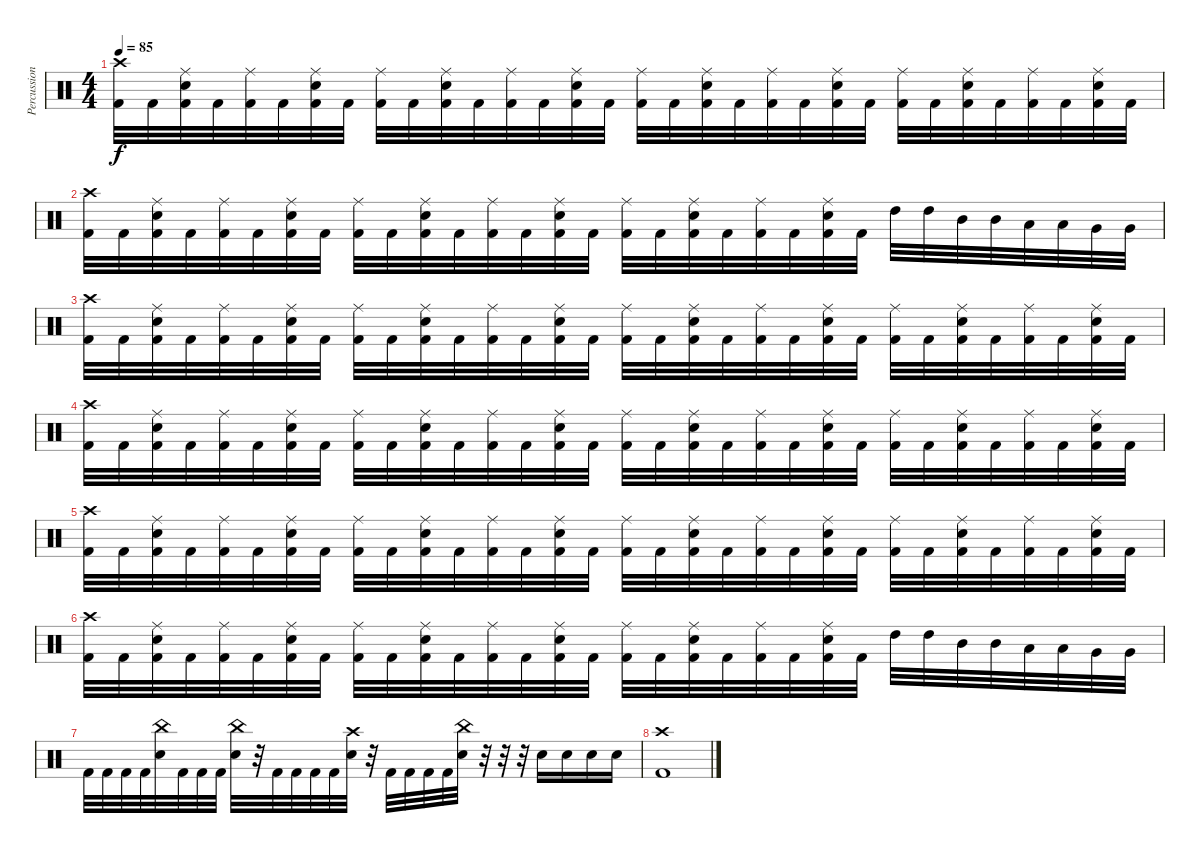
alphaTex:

\track ("Percussions" "Percussion") {instrument percussion}
\staff {score}
\articulation defaults
\ts (4 4)
\tempo 85
\clef neutral
\ks c
("Crash high (hit)" "Kick (hit) 2").32{dy f} "Kick (hit) 2".32 ("Ride (middle)" "Snare (hit) 2" "Kick (hit) 2").32 "Kick (hit) 2".32 ("Ride (middle)" "Kick (hit) 2").32 "Kick (hit) 2".32 ("Ride (middle)" "Snare (hit) 2" "Kick (hit) 2").32 "Kick (hit) 2".32 ("Ride (middle)" "Kick (hit) 2").32 "Kick (hit) 2".32 ("Ride (middle)" "Snare (hit) 2" "Kick (hit) 2").32 "Kick (hit) 2".32 ("Ride (middle)" "Kick (hit) 2").32 "Kick (hit) 2".32 ("Ride (middle)" "Snare (hit) 2" "Kick (hit) 2").32 "Kick (hit) 2".32 ("Ride (middle)" "Kick (hit) 2").32 "Kick (hit) 2".32 ("Ride (middle)" "Snare (hit) 2" "Kick (hit) 2").32 "Kick (hit) 2".32 ("Ride (middle)" "Kick (hit) 2").32 "Kick (hit) 2".32 ("Ride (middle)" "Snare (hit) 2" "Kick (hit) 2").32 "Kick (hit) 2".32 ("Ride (middle)" "Kick (hit) 2").32 "Kick (hit) 2".32 ("Ride (middle)" "Snare (hit) 2" "Kick (hit) 2").32 "Kick (hit) 2".32 ("Ride (middle)" "Kick (hit) 2").32 "Kick (hit) 2".32 ("Ride (middle)" "Snare (hit) 2" "Kick (hit) 2").32 "Kick (hit) 2".32 |
("Crash high (hit)" "Kick (hit) 2").32 "Kick (hit) 2".32 ("Ride (middle)" "Snare (hit) 2" "Kick (hit) 2").32 "Kick (hit) 2".32 ("Ride (middle)" "Kick (hit) 2").32 "Kick (hit) 2".32 ("Ride (middle)" "Snare (hit) 2" "Kick (hit) 2").32 "Kick (hit) 2".32 ("Ride (middle)" "Kick (hit) 2").32 "Kick (hit) 2".32 ("Ride (middle)" "Snare (hit) 2" "Kick (hit) 2").32 "Kick (hit) 2".32 ("Ride (middle)" "Kick (hit) 2").32 "Kick (hit) 2".32 ("Ride (middle)" "Snare (hit) 2" "Kick (hit) 2").32 "Kick (hit) 2".32 ("Ride (middle)" "Kick (hit) 2").32 "Kick (hit) 2".32 ("Ride (middle)" "Snare (hit) 2" "Kick (hit) 2").32 "Kick (hit) 2".32 ("Ride (middle)" "Kick (hit) 2").32 "Kick (hit) 2".32 ("Ride (middle)" "Snare (hit) 2" "Kick (hit) 2").32 "Kick (hit) 2".32 "High Tom (hit)".32 "High Tom (hit)".32 "Mid Tom (hit)".32 "Mid Tom (hit)".32 "Low Tom (hit)".32 "Low Tom (hit)".32 "Very Low Tom (hit)".32 "Very Low Tom (hit)".32 |
("Crash high (hit)" "Kick (hit) 2").32 "Kick (hit) 2".32 ("Ride (middle)" "Snare (hit) 2" "Kick (hit) 2").32 "Kick (hit) 2".32 ("Ride (middle)" "Kick (hit) 2").32 "Kick (hit) 2".32 ("Ride (middle)" "Snare (hit) 2" "Kick (hit) 2").32 "Kick (hit) 2".32 ("Ride (middle)" "Kick (hit) 2").32 "Kick (hit) 2".32 ("Ride (middle)" "Snare (hit) 2" "Kick (hit) 2").32 "Kick (hit) 2".32 ("Ride (middle)" "Kick (hit) 2").32 "Kick (hit) 2".32 ("Ride (middle)" "Snare (hit) 2" "Kick (hit) 2").32 "Kick (hit) 2".32 ("Ride (middle)" "Kick (hit) 2").32 "Kick (hit) 2".32 ("Ride (middle)" "Snare (hit) 2" "Kick (hit) 2").32 "Kick (hit) 2".32 ("Ride (middle)" "Kick (hit) 2").32 "Kick (hit) 2".32 ("Ride (middle)" "Snare (hit) 2" "Kick (hit) 2").32 "Kick (hit) 2".32 ("Ride (middle)" "Kick (hit) 2").32 "Kick (hit) 2".32 ("Ride (middle)" "Snare (hit) 2" "Kick (hit) 2").32 "Kick (hit) 2".32 ("Ride (middle)" "Kick (hit) 2").32 "Kick (hit) 2".32 ("Ride (middle)" "Snare (hit) 2" "Kick (hit) 2").32 "Kick (hit) 2".32 |
("Crash high (hit)" "Kick (hit) 2").32 "Kick (hit) 2".32 ("Ride (middle)" "Snare (hit) 2" "Kick (hit) 2").32 "Kick (hit) 2".32 ("Ride (middle)" "Kick (hit) 2").32 "Kick (hit) 2".32 ("Ride (middle)" "Snare (hit) 2" "Kick (hit) 2").32 "Kick (hit) 2".32 ("Ride (middle)" "Kick (hit) 2").32 "Kick (hit) 2".32 ("Ride (middle)" "Snare (hit) 2" "Kick (hit) 2").32 "Kick (hit) 2".32 ("Ride (middle)" "Kick (hit) 2").32 "Kick (hit) 2".32 ("Ride (middle)" "Snare (hit) 2" "Kick (hit) 2").32 "Kick (hit) 2".32 ("Ride (middle)" "Kick (hit) 2").32 "Kick (hit) 2".32 ("Ride (middle)" "Snare (hit) 2" "Kick (hit) 2").32 "Kick (hit) 2".32 ("Ride (middle)" "Kick (hit) 2").32 "Kick (hit) 2".32 ("Ride (middle)" "Snare (hit) 2" "Kick (hit) 2").32 "Kick (hit) 2".32 ("Ride (middle)" "Kick (hit) 2").32 "Kick (hit) 2".32 ("Ride (middle)" "Snare (hit) 2" "Kick (hit) 2").32 "Kick (hit) 2".32 ("Ride (middle)" "Kick (hit) 2").32 "Kick (hit) 2".32 ("Ride (middle)" "Snare (hit) 2" "Kick (hit) 2").32 "Kick (hit) 2".32 |
("Crash high (hit)" "Kick (hit) 2").32 "Kick (hit) 2".32 ("Ride (middle)" "Snare (hit) 2" "Kick (hit) 2").32 "Kick (hit) 2".32 ("Ride (middle)" "Kick (hit) 2").32 "Kick (hit) 2".32 ("Ride (middle)" "Snare (hit) 2" "Kick (hit) 2").32 "Kick (hit) 2".32 ("Ride (middle)" "Kick (hit) 2").32 "Kick (hit) 2".32 ("Ride (middle)" "Snare (hit) 2" "Kick (hit) 2").32 "Kick (hit) 2".32 ("Ride (middle)" "Kick (hit) 2").32 "Kick (hit) 2".32 ("Ride (middle)" "Snare (hit) 2" "Kick (hit) 2").32 "Kick (hit) 2".32 ("Ride (middle)" "Kick (hit) 2").32 "Kick (hit) 2".32 ("Ride (middle)" "Snare (hit) 2" "Kick (hit) 2").32 "Kick (hit) 2".32 ("Ride (middle)" "Kick (hit) 2").32 "Kick (hit) 2".32 ("Ride (middle)" "Snare (hit) 2" "Kick (hit) 2").32 "Kick (hit) 2".32 ("Ride (middle)" "Kick (hit) 2").32 "Kick (hit) 2".32 ("Ride (middle)" "Snare (hit) 2" "Kick (hit) 2").32 "Kick (hit) 2".32 ("Ride (middle)" "Kick (hit) 2").32 "Kick (hit) 2".32 ("Ride (middle)" "Snare (hit) 2" "Kick (hit) 2").32 "Kick (hit) 2".32 |
("Crash high (hit)" "Kick (hit) 2").32 "Kick (hit) 2".32 ("Ride (middle)" "Snare (hit) 2" "Kick (hit) 2").32 "Kick (hit) 2".32 ("Ride (middle)" "Kick (hit) 2").32 "Kick (hit) 2".32 ("Ride (middle)" "Snare (hit) 2" "Kick (hit) 2").32 "Kick (hit) 2".32 ("Ride (middle)" "Kick (hit) 2").32 "Kick (hit) 2".32 ("Ride (middle)" "Snare (hit) 2" "Kick (hit) 2").32 "Kick (hit) 2".32 ("Ride (middle)" "Kick (hit) 2").32 "Kick (hit) 2".32 ("Ride (middle)" "Snare (hit) 2" "Kick (hit) 2").32 "Kick (hit) 2".32 ("Ride (middle)" "Kick (hit) 2").32 "Kick (hit) 2".32 ("Ride (middle)" "Snare (hit) 2" "Kick (hit) 2").32 "Kick (hit) 2".32 ("Ride (middle)" "Kick (hit) 2").32 "Kick (hit) 2".32 ("Ride (middle)" "Snare (hit) 2" "Kick (hit) 2").32 "Kick (hit) 2".32 "High Tom (hit)".32 "High Tom (hit)".32 "Mid Tom (hit)".32 "Mid Tom (hit)".32 "Low Tom (hit)".32 "Low Tom (hit)".32 "Very Low Tom (hit)".32 "Very Low Tom (hit)".32 |
"Kick (hit) 2".32 "Kick (hit) 2".32 "Kick (hit) 2".32 "Kick (hit) 2".32 ("China (hit)" "Snare (hit) 2").32 "Kick (hit) 2".32 "Kick (hit) 2".32 "Kick (hit) 2".32 ("China (hit)" "Snare (hit) 2").32 r.32 "Kick (hit) 2".32 "Kick (hit) 2".32 "Kick (hit) 2".32 "Kick (hit) 2".32 ("Crash high (hit)" "Snare (hit) 2").32 r.32 "Kick (hit) 2".32 "Kick (hit) 2".32 "Kick (hit) 2".32 "Kick (hit) 2".32 ("China (hit)" "Snare (hit) 2").32 r.32 r.32 r.32 "Snare (hit) 2".16 "Snare (hit) 2".16 "Snare (hit) 2".16 "Snare (hit) 2".16 |
("Crash high (hit)" "Kick (hit) 2").1
